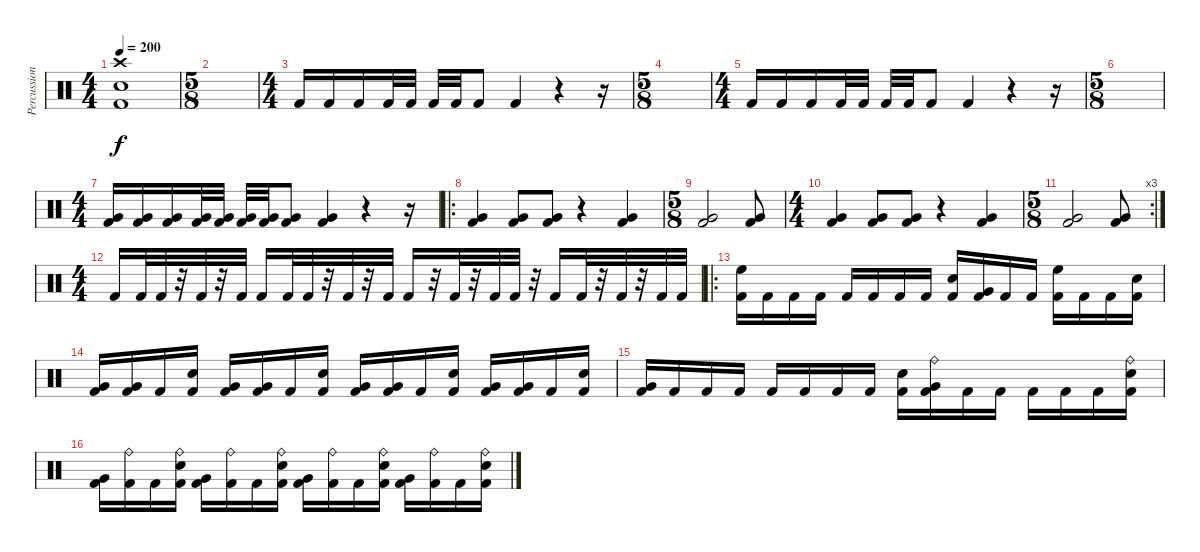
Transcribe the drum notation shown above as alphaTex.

\track ("Percussions" "Percussion") {instrument percussion}
\staff {score}
\articulation defaults
\ts (4 4)
\tempo 200
\clef neutral
\ks c
("Crash high (hit)" "Snare (hit) 2" "Kick (hit) 2").1{dy f} |
\ts (5 8)
|
\ts (4 4)
"Kick (hit) 2".16 "Kick (hit) 2".16 "Kick (hit) 2".16 "Kick (hit) 2".32 "Kick (hit) 2".32 "Kick (hit) 2".32 "Kick (hit) 2".32 "Kick (hit) 2".8 "Kick (hit) 2".4 r.4 r.16 |
\ts (5 8)
|
\ts (4 4)
"Kick (hit) 2".16 "Kick (hit) 2".16 "Kick (hit) 2".16 "Kick (hit) 2".32 "Kick (hit) 2".32 "Kick (hit) 2".32 "Kick (hit) 2".32 "Kick (hit) 2".8 "Kick (hit) 2".4 r.4 r.16 |
\ts (5 8)
|
\ts (4 4)
("Very Low Tom (hit)" "Kick (hit) 2").16 ("Very Low Tom (hit)" "Kick (hit) 2").16 ("Very Low Tom (hit)" "Kick (hit) 2").16 ("Very Low Tom (hit)" "Kick (hit) 2").32 ("Very Low Tom (hit)" "Kick (hit) 2").32 ("Very Low Tom (hit)" "Kick (hit) 2").32 ("Very Low Tom (hit)" "Kick (hit) 2").32 ("Very Low Tom (hit)" "Kick (hit) 2").8 ("Very Low Tom (hit)" "Kick (hit) 2").4 r.4 r.16 |
\ro
("Very Low Tom (hit)" "Kick (hit) 2").4 ("Very Low Tom (hit)" "Kick (hit) 2").8 ("Very Low Tom (hit)" "Kick (hit) 2").8 r.4 ("Very Low Tom (hit)" "Kick (hit) 2").4 |
\ts (5 8)
("Very Low Tom (hit)" "Kick (hit) 2").2 ("Very Low Tom (hit)" "Kick (hit) 2").8 |
\ts (4 4)
("Very Low Tom (hit)" "Kick (hit) 2").4 ("Very Low Tom (hit)" "Kick (hit) 2").8 ("Very Low Tom (hit)" "Kick (hit) 2").8 r.4 ("Very Low Tom (hit)" "Kick (hit) 2").4 |
\rc 3
\ts (5 8)
("Very Low Tom (hit)" "Kick (hit) 2").2 ("Very Low Tom (hit)" "Kick (hit) 2").8 |
\ts (4 4)
"Kick (hit) 2".16 "Kick (hit) 2".32 "Kick (hit) 2".32 r.32 "Kick (hit) 2".32 r.32 "Kick (hit) 2".32 "Kick (hit) 2".16 "Kick (hit) 2".32 "Kick (hit) 2".32 r.32 "Kick (hit) 2".32 r.32 "Kick (hit) 2".32 "Kick (hit) 2".16 r.32 "Kick (hit) 2".32 r.32 "Kick (hit) 2".32 "Kick (hit) 2".32 r.32 "Kick (hit) 2".16 "Kick (hit) 2".32 r.32 "Kick (hit) 2".32 r.32 "Kick (hit) 2".32 "Kick (hit) 2".32 |
\ro
("High Floor Tom (hit)" "Kick (hit) 2").16 "Kick (hit) 2".16 "Kick (hit) 2".16 "Kick (hit) 2".16 "Kick (hit) 2".16 "Kick (hit) 2".16 "Kick (hit) 2".16 "Kick (hit) 2".16 ("Snare (hit) 2" "Kick (hit) 2").16 ("Very Low Tom (hit)" "Kick (hit) 2").16 "Kick (hit) 2".16 "Kick (hit) 2".16 ("High Floor Tom (hit)" "Kick (hit) 2").16 "Kick (hit) 2".16 "Kick (hit) 2".16 ("Snare (hit) 2" "Kick (hit) 2").16 |
("Very Low Tom (hit)" "Kick (hit) 2").16 ("Very Low Tom (hit)" "Kick (hit) 2").16 "Kick (hit) 2".16 ("Snare (hit) 2" "Kick (hit) 2").16 ("Very Low Tom (hit)" "Kick (hit) 2").16 ("Very Low Tom (hit)" "Kick (hit) 2").16 "Kick (hit) 2".16 ("Snare (hit) 2" "Kick (hit) 2").16 ("Very Low Tom (hit)" "Kick (hit) 2").16 ("Very Low Tom (hit)" "Kick (hit) 2").16 "Kick (hit) 2".16 ("Snare (hit) 2" "Kick (hit) 2").16 ("Very Low Tom (hit)" "Kick (hit) 2").16 ("Very Low Tom (hit)" "Kick (hit) 2").16 "Kick (hit) 2".16 ("Snare (hit) 2" "Kick (hit) 2").16 |
("Very Low Tom (hit)" "Kick (hit) 2").16 "Kick (hit) 2".16 "Kick (hit) 2".16 "Kick (hit) 2".16 "Kick (hit) 2".16 "Kick (hit) 2".16 "Kick (hit) 2".16 "Kick (hit) 2".16 ("Snare (hit) 2" "Kick (hit) 2").16 ("Ride (bell)" "Very Low Tom (hit)" "Kick (hit) 2").16 "Kick (hit) 2".16 "Kick (hit) 2".16 "Kick (hit) 2".16 "Kick (hit) 2".16 "Kick (hit) 2".16 ("Ride (bell)" "Snare (hit) 2" "Kick (hit) 2").16 |
("Very Low Tom (hit)" "Kick (hit) 2").16 ("Ride (bell)" "Kick (hit) 2").16 "Kick (hit) 2".16 ("Ride (bell)" "Snare (hit) 2" "Kick (hit) 2").16 ("Very Low Tom (hit)" "Kick (hit) 2").16 ("Ride (bell)" "Kick (hit) 2").16 "Kick (hit) 2".16 ("Ride (bell)" "Snare (hit) 2" "Kick (hit) 2").16 ("Very Low Tom (hit)" "Kick (hit) 2").16 ("Ride (bell)" "Kick (hit) 2").16 "Kick (hit) 2".16 ("Ride (bell)" "Snare (hit) 2" "Kick (hit) 2").16 ("Very Low Tom (hit)" "Kick (hit) 2").16 ("Ride (bell)" "Kick (hit) 2").16 "Kick (hit) 2".16 ("Ride (bell)" "Snare (hit) 2" "Kick (hit) 2").16
